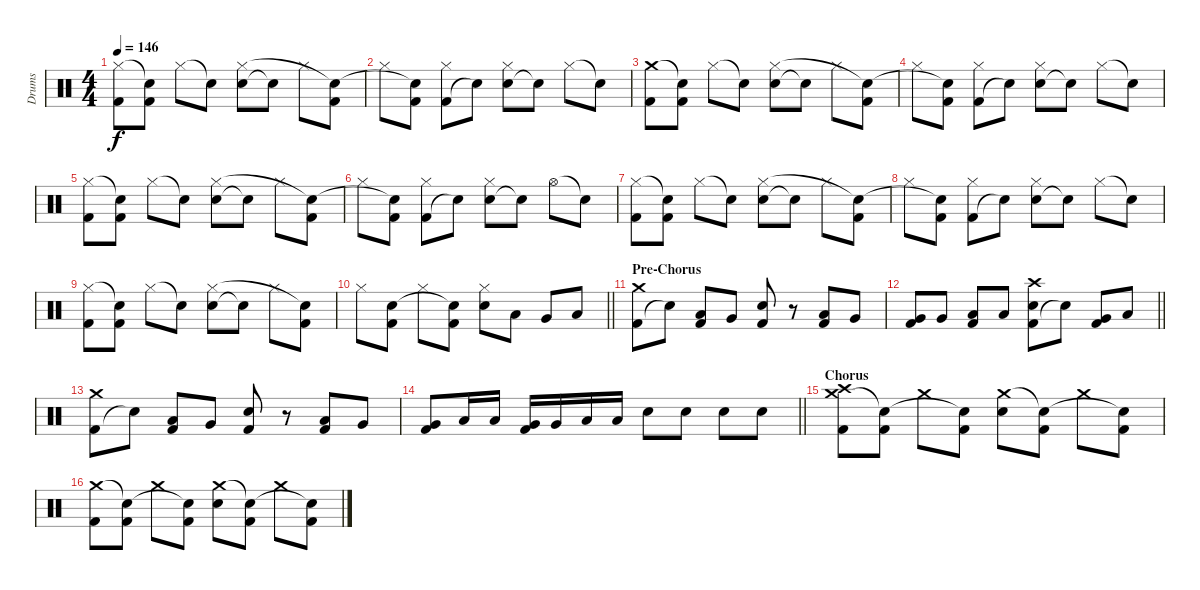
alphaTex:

\track ("Drums" "Drums") {instrument percussion}
\staff {score}
\articulation defaults
\ts (4 4)
\tempo 146
\clef neutral
\ks c
("Kick (hit) 2" "Hi-Hat (closed)").8{dy f} ("Kick (hit) 2" "Snare (hit)"{t}).8 "Hi-Hat (closed)".8 "Snare (hit)"{t}.8 ("Electric Snare (hit)" "Hi-Hat (closed)").8 "Snare (hit)"{t}.8 "Hi-Hat (closed)".8 ("Kick (hit) 2" "Snare (hit)"{t}).8 |
"Hi-Hat (closed)".8 ("Kick (hit) 2" "Snare (hit)"{t}).8 ("Kick (hit) 2" "Hi-Hat (closed)").8 "Snare (hit)"{t}.8 ("Electric Snare (hit)" "Hi-Hat (closed)").8 "Snare (hit)"{t}.8 "Hi-Hat (closed)".8 "Snare (hit)"{t}.8 |
("Kick (hit) 2" "Crash medium (hit)").8 ("Kick (hit) 2" "Snare (hit)"{t}).8 "Hi-Hat (closed)".8 "Snare (hit)"{t}.8 ("Electric Snare (hit)" "Hi-Hat (closed)").8 "Snare (hit)"{t}.8 "Hi-Hat (closed)".8 ("Kick (hit) 2" "Snare (hit)"{t}).8 |
"Hi-Hat (closed)".8 ("Kick (hit) 2" "Snare (hit)"{t}).8 ("Kick (hit) 2" "Hi-Hat (closed)").8 "Snare (hit)"{t}.8 ("Electric Snare (hit)" "Hi-Hat (closed)").8 "Snare (hit)"{t}.8 "Hi-Hat (closed)".8 "Snare (hit)"{t}.8 |
("Kick (hit) 2" "Hi-Hat (closed)").8 ("Kick (hit) 2" "Snare (hit)"{t}).8 "Hi-Hat (closed)".8 "Snare (hit)"{t}.8 ("Electric Snare (hit)" "Hi-Hat (closed)").8 "Snare (hit)"{t}.8 "Hi-Hat (closed)".8 ("Kick (hit) 2" "Snare (hit)"{t}).8 |
"Hi-Hat (closed)".8 ("Kick (hit) 2" "Snare (hit)"{t}).8 ("Kick (hit) 2" "Hi-Hat (closed)").8 "Snare (hit)"{t}.8 ("Electric Snare (hit)" "Hi-Hat (closed)").8 "Snare (hit)"{t}.8 "Hi-Hat (open)".8 "Snare (hit)"{t}.8 |
("Kick (hit) 2" "Hi-Hat (closed)").8 ("Kick (hit) 2" "Snare (hit)"{t}).8 "Hi-Hat (closed)".8 "Snare (hit)"{t}.8 ("Electric Snare (hit)" "Hi-Hat (closed)").8 "Snare (hit)"{t}.8 "Hi-Hat (closed)".8 ("Kick (hit) 2" "Snare (hit)"{t}).8 |
"Hi-Hat (closed)".8 ("Kick (hit) 2" "Snare (hit)"{t}).8 ("Kick (hit) 2" "Hi-Hat (closed)").8 "Snare (hit)"{t}.8 ("Electric Snare (hit)" "Hi-Hat (closed)").8 "Snare (hit)"{t}.8 "Hi-Hat (closed)".8 "Snare (hit)"{t}.8 |
("Kick (hit) 2" "Hi-Hat (closed)").8 ("Kick (hit) 2" "Snare (hit)"{t}).8 "Hi-Hat (closed)".8 "Snare (hit)"{t}.8 ("Electric Snare (hit)" "Hi-Hat (closed)").8 "Snare (hit)"{t}.8 "Hi-Hat (closed)".8 ("Kick (hit) 2" "Snare (hit)"{t}).8 |
\barLineRight lightlight "Hi-Hat (closed)".8
("Kick (hit) 2" "Electric Snare (hit)").8 "Hi-Hat (closed)".8 ("Kick (hit) 2" "Snare (hit)"{t}).8 ("Electric Snare (hit)" "Hi-Hat (closed)").8 "Low Tom (hit)".8 "Very Low Tom (hit)".8 "Low Floor Tom (hit)".8 |
\section ("" "Pre-Chorus")
("Kick (hit) 2" "Crash medium (hit)").8 "Snare (hit)"{t}.8 ("Kick (hit) 2" "Low Tom (hit)").8 "Very Low Tom (hit)".8 ("Kick (hit) 2" "Electric Snare (hit)").8 r.8 ("Kick (hit) 2" "Low Tom (hit)").8 "Very Low Tom (hit)".8 |
\barLineRight lightlight
("Kick (hit) 2" "Very Low Tom (hit)").8 "Very Low Tom (hit)".8 ("Kick (hit) 2" "Low Floor Tom (hit)").8 "Low Floor Tom (hit)".8 ("Kick (hit) 2" "Electric Snare (hit)" "Crash high (hit)").8 "Snare (hit)"{t}.8 ("Kick (hit) 2" "Very Low Tom (hit)").8 "Low Floor Tom (hit)".8 |
("Kick (hit) 2" "Crash medium (hit)").8 "Snare (hit)"{t}.8 ("Kick (hit) 2" "Low Tom (hit)").8 "Very Low Tom (hit)".8 ("Kick (hit) 2" "Electric Snare (hit)").8 r.8 ("Kick (hit) 2" "Low Tom (hit)").8 "Very Low Tom (hit)".8 |
\barLineRight lightlight
("Kick (hit) 2" "Very Low Tom (hit)").8 "Low Tom (hit)".16 "Low Tom (hit)".16 ("Kick (hit) 2" "Very Low Tom (hit)").16 "Very Low Tom (hit)".16 "Low Floor Tom (hit)".16 "Low Floor Tom (hit)".16 "Electric Snare (hit)".8 "Electric Snare (hit)".8 "Electric Snare (hit)".8 "Electric Snare (hit)".8 |
\section ("" "Chorus")
("Kick (hit) 2" "Crash medium (hit)" "Crash high (hit)").8 ("Kick (hit) 2" "Snare (hit)"{t}).8 "Crash medium (hit)".8 ("Kick (hit) 2" "Snare (hit)"{t}).8 ("Electric Snare (hit)" "Crash medium (hit)").8 ("Kick (hit) 2" "Snare (hit)"{t}).8 "Crash medium (hit)".8 ("Kick (hit) 2" "Snare (hit)"{t}).8 |
("Kick (hit) 2" "Crash medium (hit)").8 ("Kick (hit) 2" "Snare (hit)"{t}).8 "Crash medium (hit)".8 ("Kick (hit) 2" "Snare (hit)"{t}).8 ("Electric Snare (hit)" "Crash medium (hit)").8 ("Kick (hit) 2" "Snare (hit)"{t}).8 "Crash medium (hit)".8 ("Kick (hit) 2" "Snare (hit)"{t}).8
